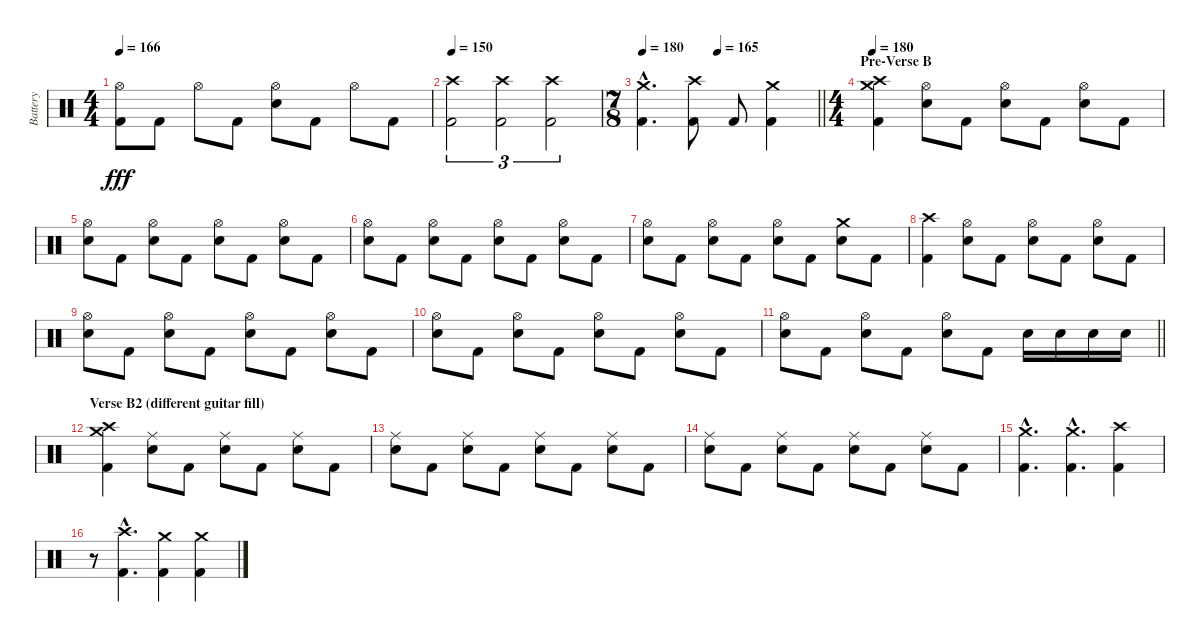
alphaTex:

\track ("Battery" "Battery") {instrument percussion}
\staff {score}
\articulation defaults
\ts (4 4)
\tempo 166
\clef neutral
\ks c
("Hi-Hat (open)" "Kick (hit) 2").8{dy fff} "Kick (hit) 2".8 "Hi-Hat (open)".8 "Kick (hit) 2".8 ("Hi-Hat (open)" "Electric Snare (hit)").8 "Kick (hit) 2".8 "Hi-Hat (open)".8 "Kick (hit) 2".8 |
\tempo 150
("Crash high (hit)" "Kick (hit) 2").2{tu (3 2)} ("Crash high (hit)" "Kick (hit) 2").2{tu (3 2)} ("Crash high (hit)" "Kick (hit) 2").2{tu (3 2)} |
\ts (7 8)
\tempo 180
\tempo (165 0.42857142857142855)
\barLineRight lightlight
("Crash medium (hit)"{hac} "Kick (hit) 2"{hac}).4{d} ("Crash high (hit)" "Kick (hit) 2").8 "Kick (hit) 2".8 ("Crash medium (hit)" "Kick (hit) 2").4 |
\ts (4 4)
\section ("" "Pre-Verse B")
\tempo 180
("Crash high (hit)" "Crash medium (hit)" "Kick (hit) 2").4 ("Hi-Hat (open)" "Electric Snare (hit)").8 "Kick (hit) 2".8 ("Hi-Hat (open)" "Electric Snare (hit)").8 "Kick (hit) 2".8 ("Hi-Hat (open)" "Electric Snare (hit)").8 "Kick (hit) 2".8 |
("Hi-Hat (open)" "Electric Snare (hit)").8 "Kick (hit) 2".8 ("Hi-Hat (open)" "Electric Snare (hit)").8 "Kick (hit) 2".8 ("Hi-Hat (open)" "Electric Snare (hit)").8 "Kick (hit) 2".8 ("Hi-Hat (open)" "Electric Snare (hit)").8 "Kick (hit) 2".8 |
("Hi-Hat (open)" "Electric Snare (hit)").8 "Kick (hit) 2".8 ("Hi-Hat (open)" "Electric Snare (hit)").8 "Kick (hit) 2".8 ("Hi-Hat (open)" "Electric Snare (hit)").8 "Kick (hit) 2".8 ("Hi-Hat (open)" "Electric Snare (hit)").8 "Kick (hit) 2".8 |
("Hi-Hat (open)" "Electric Snare (hit)").8 "Kick (hit) 2".8 ("Hi-Hat (open)" "Electric Snare (hit)").8 "Kick (hit) 2".8 ("Hi-Hat (open)" "Electric Snare (hit)").8 "Kick (hit) 2".8 ("Crash medium (hit)" "Electric Snare (hit)").8 "Kick (hit) 2".8 |
("Crash high (hit)" "Kick (hit) 2").4 ("Hi-Hat (open)" "Electric Snare (hit)").8 "Kick (hit) 2".8 ("Hi-Hat (open)" "Electric Snare (hit)").8 "Kick (hit) 2".8 ("Hi-Hat (open)" "Electric Snare (hit)").8 "Kick (hit) 2".8 |
("Hi-Hat (open)" "Electric Snare (hit)").8 "Kick (hit) 2".8 ("Hi-Hat (open)" "Electric Snare (hit)").8 "Kick (hit) 2".8 ("Hi-Hat (open)" "Electric Snare (hit)").8 "Kick (hit) 2".8 ("Hi-Hat (open)" "Electric Snare (hit)").8 "Kick (hit) 2".8 |
("Hi-Hat (open)" "Electric Snare (hit)").8 "Kick (hit) 2".8 ("Hi-Hat (open)" "Electric Snare (hit)").8 "Kick (hit) 2".8 ("Hi-Hat (open)" "Electric Snare (hit)").8 "Kick (hit) 2".8 ("Hi-Hat (open)" "Electric Snare (hit)").8 "Kick (hit) 2".8 |
\barLineRight lightlight
("Hi-Hat (open)" "Electric Snare (hit)").8 "Kick (hit) 2".8 ("Hi-Hat (open)" "Electric Snare (hit)").8 "Kick (hit) 2".8 ("Hi-Hat (open)" "Electric Snare (hit)").8 "Kick (hit) 2".8 "Electric Snare (hit)".16 "Electric Snare (hit)".16 "Electric Snare (hit)".16 "Electric Snare (hit)".16 |
\section ("" "Verse B2 (different guitar fill)")
("Crash high (hit)" "Crash medium (hit)" "Kick (hit) 2").4 ("Ride (middle)" "Electric Snare (hit)").8 "Kick (hit) 2".8 ("Ride (middle)" "Electric Snare (hit)").8 "Kick (hit) 2".8 ("Ride (middle)" "Electric Snare (hit)").8 "Kick (hit) 2".8 |
("Ride (middle)" "Electric Snare (hit)").8 "Kick (hit) 2".8 ("Ride (middle)" "Electric Snare (hit)").8 "Kick (hit) 2".8 ("Ride (middle)" "Electric Snare (hit)").8 "Kick (hit) 2".8 ("Ride (middle)" "Electric Snare (hit)").8 "Kick (hit) 2".8 |
("Ride (middle)" "Electric Snare (hit)").8 "Kick (hit) 2".8 ("Ride (middle)" "Electric Snare (hit)").8 "Kick (hit) 2".8 ("Ride (middle)" "Electric Snare (hit)").8 "Kick (hit) 2".8 ("Ride (middle)" "Electric Snare (hit)").8 "Kick (hit) 2".8 |
("Crash medium (hit)"{hac} "Kick (hit) 2"{hac}).4{d} ("Crash medium (hit)"{hac} "Kick (hit) 2"{hac}).4{d} ("Crash high (hit)" "Kick (hit) 2").4 |
r.8 ("Crash high (hit)"{hac} "Kick (hit) 2"{hac}).4{d} ("Crash medium (hit)" "Kick (hit) 2").4 ("Crash medium (hit)" "Kick (hit) 2").4
